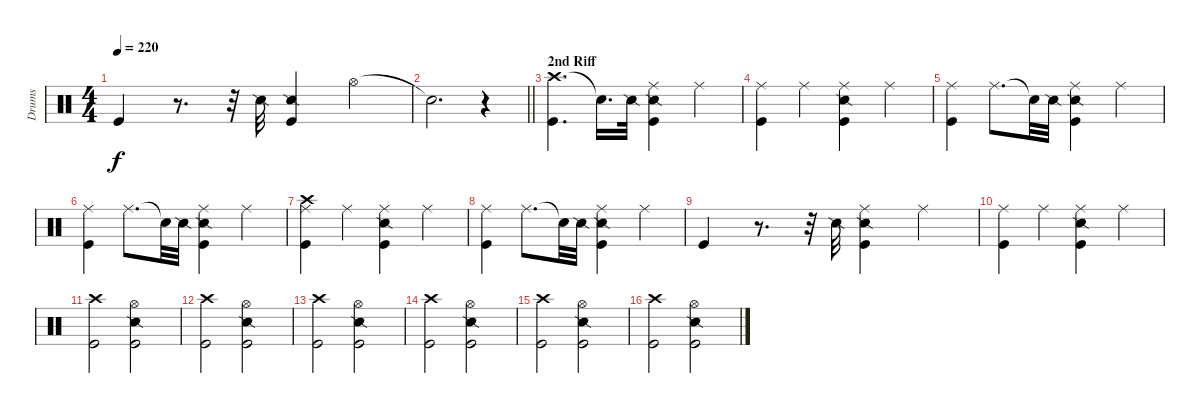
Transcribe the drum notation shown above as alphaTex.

\track ("Drums" "Drums") {instrument percussion}
\staff {score}
\articulation defaults
\ts (4 4)
\tempo 220
\clef neutral
\ks c "Kick (hit)".4{dy f}
r.8{d} r.32 "Snare (side stick) 2".32 ("Snare (side stick) 2" "Kick (hit)").4 "Hi-Hat (open)".4 |
\barLineRight lightlight "Snare (hit)"{t}.2{d}
r.4 |
\section ("" "2nd Riff")
("Crash high (hit)" "Kick (hit)").4{d} "Snare (hit)"{t}.16{d} "Snare (side stick) 2".32 ("Ride (middle)" "Snare (side stick) 2" "Kick (hit)").4 "Ride (middle)".4 |
("Ride (middle)" "Kick (hit)").4 "Ride (middle)".4 ("Ride (middle)" "Snare (side stick) 2" "Kick (hit)").4 "Ride (middle)".4 |
("Ride (middle)" "Kick (hit)").4 "Ride (middle)".8{d} "Snare (hit)"{t}.32 "Snare (side stick) 2".32 ("Ride (middle)" "Snare (side stick) 2" "Kick (hit)").4 "Ride (middle)".4 |
("Ride (middle)" "Kick (hit)").4 "Ride (middle)".8{d} "Snare (hit)"{t}.32 "Snare (side stick) 2".32 ("Ride (middle)" "Snare (side stick) 2" "Kick (hit)").4 "Ride (middle)".4 |
("Ride (middle)" "Crash high (hit)" "Kick (hit)").4 "Ride (middle)".4 ("Ride (middle)" "Snare (side stick) 2" "Kick (hit)").4 "Ride (middle)".4 |
("Ride (middle)" "Kick (hit)").4 "Ride (middle)".8{d} "Snare (hit)"{t}.32 "Snare (side stick) 2".32 ("Ride (middle)" "Snare (side stick) 2" "Kick (hit)").4 "Ride (middle)".4 |
"Kick (hit)".4 r.8{d} r.32 "Snare (side stick) 2".32 ("Ride (middle)" "Snare (side stick) 2" "Kick (hit)").4 "Ride (middle)".4 |
("Ride (middle)" "Kick (hit)").4 "Ride (middle)".4 ("Ride (middle)" "Snare (side stick) 2" "Kick (hit)").4 "Ride (middle)".4 |
("Crash high (hit)" "Kick (hit)").2 ("Hi-Hat (open)" "Snare (side stick) 2" "Kick (hit)").2 |
("Crash high (hit)" "Kick (hit)").2 ("Hi-Hat (open)" "Snare (side stick) 2" "Kick (hit)").2 |
("Crash high (hit)" "Kick (hit)").2 ("Hi-Hat (open)" "Snare (side stick) 2" "Kick (hit)").2 |
("Crash high (hit)" "Kick (hit)").2 ("Hi-Hat (open)" "Snare (side stick) 2" "Kick (hit)").2 |
("Crash high (hit)" "Kick (hit)").2 ("Hi-Hat (open)" "Snare (side stick) 2" "Kick (hit)").2 |
("Crash high (hit)" "Kick (hit)").2 ("Hi-Hat (open)" "Snare (side stick) 2" "Kick (hit)").2
